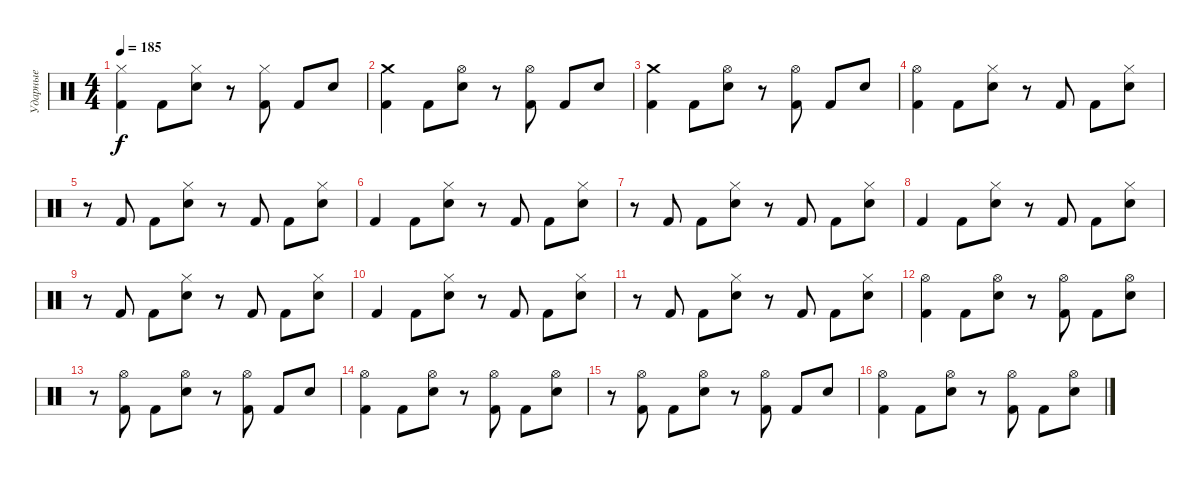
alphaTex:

\track ("Ударные" "Ударные") {instrument percussion}
\staff {score}
\articulation defaults
\ts (4 4)
\tempo 185
\clef neutral
\ks c
("Hi-Hat (closed)" "Kick (hit) 2").4{dy f} "Kick (hit) 2".8 ("Hi-Hat (closed)" "Electric Snare (hit)").8 r.8 ("Hi-Hat (closed)" "Kick (hit) 2").8 "Kick (hit) 2".8 "Electric Snare (hit)".8 |
("Crash medium (hit)" "Kick (hit) 2").4 "Kick (hit) 2".8 ("Hi-Hat (open)" "Electric Snare (hit)").8 r.8 ("Hi-Hat (open)" "Kick (hit) 2").8 "Kick (hit) 2".8 "Electric Snare (hit)".8 |
("Crash medium (hit)" "Kick (hit) 2").4 "Kick (hit) 2".8 ("Hi-Hat (open)" "Electric Snare (hit)").8 r.8 ("Hi-Hat (open)" "Kick (hit) 2").8 "Kick (hit) 2".8 "Electric Snare (hit)".8 |
("Hi-Hat (open)" "Kick (hit) 2").4 "Kick (hit) 2".8 ("Hi-Hat (closed)" "Electric Snare (hit)").8 r.8 "Kick (hit) 2".8 "Kick (hit) 2".8 ("Hi-Hat (closed)" "Electric Snare (hit)").8 |
r.8 "Kick (hit) 2".8 "Kick (hit) 2".8 ("Hi-Hat (closed)" "Electric Snare (hit)").8 r.8 "Kick (hit) 2".8 "Kick (hit) 2".8 ("Hi-Hat (closed)" "Electric Snare (hit)").8 |
"Kick (hit) 2".4 "Kick (hit) 2".8 ("Hi-Hat (closed)" "Electric Snare (hit)").8 r.8 "Kick (hit) 2".8 "Kick (hit) 2".8 ("Hi-Hat (closed)" "Electric Snare (hit)").8 |
r.8 "Kick (hit) 2".8 "Kick (hit) 2".8 ("Hi-Hat (closed)" "Electric Snare (hit)").8 r.8 "Kick (hit) 2".8 "Kick (hit) 2".8 ("Hi-Hat (closed)" "Electric Snare (hit)").8 |
"Kick (hit) 2".4 "Kick (hit) 2".8 ("Hi-Hat (closed)" "Electric Snare (hit)").8 r.8 "Kick (hit) 2".8 "Kick (hit) 2".8 ("Hi-Hat (closed)" "Electric Snare (hit)").8 |
r.8 "Kick (hit) 2".8 "Kick (hit) 2".8 ("Hi-Hat (closed)" "Electric Snare (hit)").8 r.8 "Kick (hit) 2".8 "Kick (hit) 2".8 ("Hi-Hat (closed)" "Electric Snare (hit)").8 |
"Kick (hit) 2".4 "Kick (hit) 2".8 ("Hi-Hat (closed)" "Electric Snare (hit)").8 r.8 "Kick (hit) 2".8 "Kick (hit) 2".8 ("Hi-Hat (closed)" "Electric Snare (hit)").8 |
r.8 "Kick (hit) 2".8 "Kick (hit) 2".8 ("Hi-Hat (closed)" "Electric Snare (hit)").8 r.8 "Kick (hit) 2".8 "Kick (hit) 2".8 ("Hi-Hat (closed)" "Electric Snare (hit)").8 |
("Hi-Hat (open)" "Kick (hit) 2").4 "Kick (hit) 2".8 ("Hi-Hat (open)" "Electric Snare (hit)").8 r.8 ("Hi-Hat (open)" "Kick (hit) 2").8 "Kick (hit) 2".8 ("Hi-Hat (open)" "Electric Snare (hit)").8 |
r.8 ("Hi-Hat (open)" "Kick (hit) 2").8 "Kick (hit) 2".8 ("Hi-Hat (open)" "Electric Snare (hit)").8 r.8 ("Hi-Hat (open)" "Kick (hit) 2").8 "Kick (hit) 2".8 "Electric Snare (hit)".8 |
("Hi-Hat (open)" "Kick (hit) 2").4 "Kick (hit) 2".8 ("Hi-Hat (open)" "Electric Snare (hit)").8 r.8 ("Hi-Hat (open)" "Kick (hit) 2").8 "Kick (hit) 2".8 ("Hi-Hat (open)" "Electric Snare (hit)").8 |
r.8 ("Hi-Hat (open)" "Kick (hit) 2").8 "Kick (hit) 2".8 ("Hi-Hat (open)" "Electric Snare (hit)").8 r.8 ("Hi-Hat (open)" "Kick (hit) 2").8 "Kick (hit) 2".8 "Electric Snare (hit)".8 |
("Hi-Hat (open)" "Kick (hit) 2").4 "Kick (hit) 2".8 ("Hi-Hat (open)" "Electric Snare (hit)").8 r.8 ("Hi-Hat (open)" "Kick (hit) 2").8 "Kick (hit) 2".8 ("Hi-Hat (open)" "Electric Snare (hit)").8
